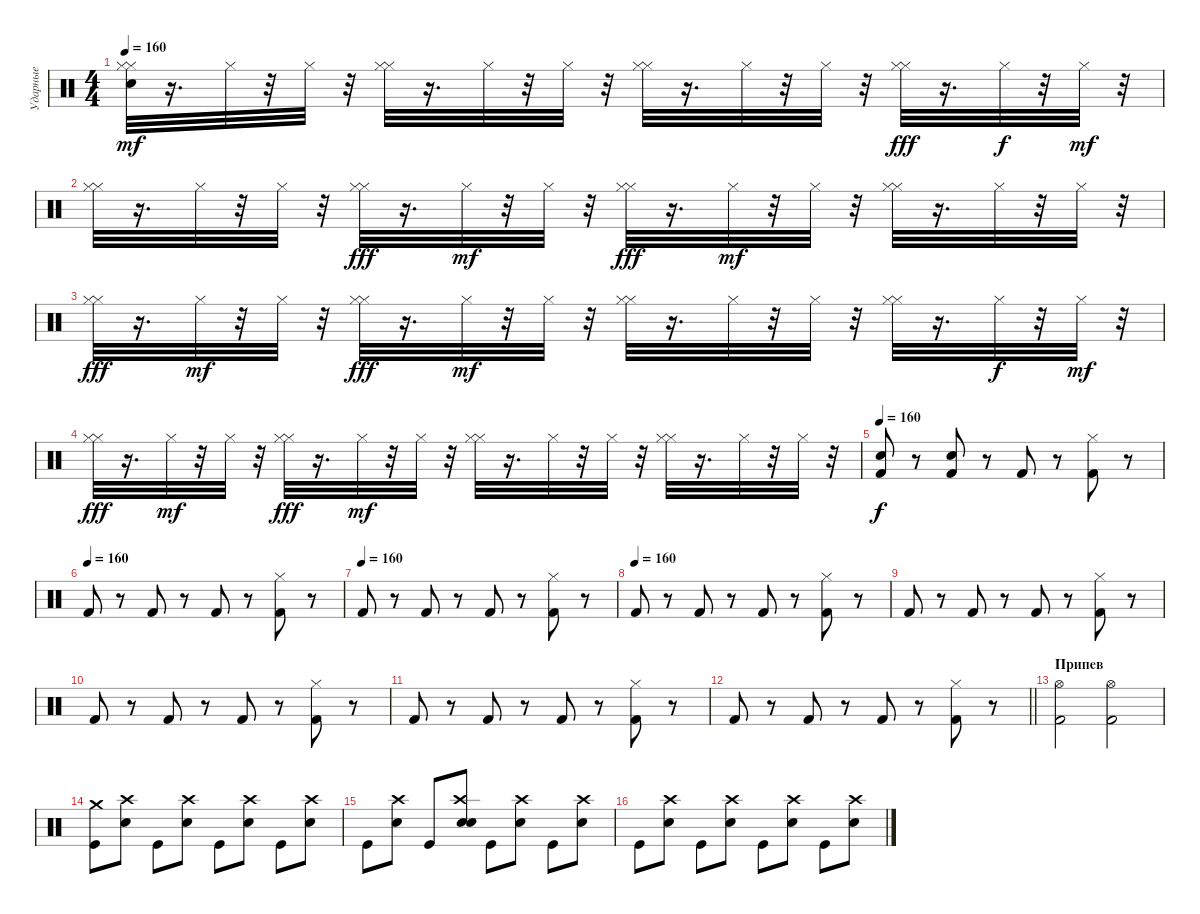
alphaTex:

\track ("Ударные" "Ударные") {instrument percussion}
\staff {score}
\articulation defaults
\ts (4 4)
\tempo 160
\clef neutral
\ks c
("Hi-Hat (closed)" "Hi-Hat (closed)" "Snare (hit)").32{dy mf} r.16{d} "Hi-Hat (closed)".32 r.32 "Hi-Hat (closed)".32 r.32 ("Hi-Hat (closed)" "Hi-Hat (closed)").32 r.16{d} "Hi-Hat (closed)".32 r.32 "Hi-Hat (closed)".32 r.32 ("Hi-Hat (closed)" "Hi-Hat (closed)").32 r.16{d} "Hi-Hat (closed)".32 r.32 "Hi-Hat (closed)".32 r.32 ("Hi-Hat (closed)" "Hi-Hat (closed)").32{dy fff} r.16{d} "Hi-Hat (closed)".32{dy f} r.32 "Hi-Hat (closed)".32{dy mf} r.32 |
("Hi-Hat (closed)" "Hi-Hat (closed)").32 r.16{d} "Hi-Hat (closed)".32 r.32 "Hi-Hat (closed)".32 r.32 ("Hi-Hat (closed)" "Hi-Hat (closed)").32{dy fff} r.16{d} "Hi-Hat (closed)".32{dy mf} r.32 "Hi-Hat (closed)".32 r.32 ("Hi-Hat (closed)" "Hi-Hat (closed)").32{dy fff} r.16{d} "Hi-Hat (closed)".32{dy mf} r.32 "Hi-Hat (closed)".32 r.32 ("Hi-Hat (closed)" "Hi-Hat (closed)").32 r.16{d} "Hi-Hat (closed)".32 r.32 "Hi-Hat (closed)".32 r.32 |
("Hi-Hat (closed)" "Hi-Hat (closed)").32{dy fff} r.16{d} "Hi-Hat (closed)".32{dy mf} r.32 "Hi-Hat (closed)".32 r.32 ("Hi-Hat (closed)" "Hi-Hat (closed)").32{dy fff} r.16{d} "Hi-Hat (closed)".32{dy mf} r.32 "Hi-Hat (closed)".32 r.32 ("Hi-Hat (closed)" "Hi-Hat (closed)").32 r.16{d} "Hi-Hat (closed)".32 r.32 "Hi-Hat (closed)".32 r.32 ("Hi-Hat (closed)" "Hi-Hat (closed)").32 r.16{d} "Hi-Hat (closed)".32{dy f} r.32 "Hi-Hat (closed)".32{dy mf} r.32 |
("Hi-Hat (closed)" "Hi-Hat (closed)").32{dy fff} r.16{d} "Hi-Hat (closed)".32{dy mf} r.32 "Hi-Hat (closed)".32 r.32 ("Hi-Hat (closed)" "Hi-Hat (closed)").32{dy fff} r.16{d} "Hi-Hat (closed)".32{dy mf} r.32 "Hi-Hat (closed)".32 r.32 ("Hi-Hat (closed)" "Hi-Hat (closed)").32 r.16{d} "Hi-Hat (closed)".32 r.32 "Hi-Hat (closed)".32 r.32 ("Hi-Hat (closed)" "Hi-Hat (closed)").32 r.16{d} "Hi-Hat (closed)".32 r.32 "Hi-Hat (closed)".32 r.32 |
\tempo 160
("Kick (hit) 2" "Snare (hit)").8{dy f} r.8 ("Kick (hit) 2" "Snare (hit)").8 r.8 "Kick (hit) 2".8 r.8 ("Kick (hit) 2" "Hi-Hat (closed)").8 r.8 |
\tempo (160)
"Kick (hit) 2".8 r.8 "Kick (hit) 2".8 r.8 "Kick (hit) 2".8 r.8 ("Kick (hit) 2" "Hi-Hat (closed)").8 r.8 |
\tempo (160)
"Kick (hit) 2".8 r.8 "Kick (hit) 2".8 r.8 "Kick (hit) 2".8 r.8 ("Kick (hit) 2" "Hi-Hat (closed)").8 r.8 |
\tempo (160)
"Kick (hit) 2".8 r.8 "Kick (hit) 2".8 r.8 "Kick (hit) 2".8 r.8 ("Kick (hit) 2" "Hi-Hat (closed)").8 r.8 |
"Kick (hit) 2".8 r.8 "Kick (hit) 2".8 r.8 "Kick (hit) 2".8 r.8 ("Kick (hit) 2" "Hi-Hat (closed)").8 r.8 |
"Kick (hit) 2".8 r.8 "Kick (hit) 2".8 r.8 "Kick (hit) 2".8 r.8 ("Kick (hit) 2" "Hi-Hat (closed)").8 r.8 |
"Kick (hit) 2".8 r.8 "Kick (hit) 2".8 r.8 "Kick (hit) 2".8 r.8 ("Kick (hit) 2" "Hi-Hat (closed)").8 r.8 |
\barLineRight lightlight "Kick (hit) 2".8
r.8 "Kick (hit) 2".8 r.8 "Kick (hit) 2".8 r.8 ("Kick (hit) 2" "Hi-Hat (closed)").8 r.8 |
\section ("" "Припев")
("Hi-Hat (open)" "Kick (hit) 2").2 ("Hi-Hat (open)" "Kick (hit) 2").2 |
("Crash medium (hit)" "Kick (hit)").8 ("Crash high (hit)" "Snare (hit) 2").8 "Kick (hit)".8 ("Crash high (hit)" "Snare (hit) 2").8 "Kick (hit)".8 ("Crash high (hit)" "Snare (hit) 2").8 "Kick (hit)".8 ("Crash high (hit)" "Snare (hit) 2").8 |
"Kick (hit)".8 ("Crash high (hit)" "Snare (hit) 2").8 "Kick (hit)".8 ("Crash high (hit)" "Electric Snare (hit)" "Snare (hit) 2").8 "Kick (hit)".8 ("Crash high (hit)" "Snare (hit) 2").8 "Kick (hit)".8 ("Crash high (hit)" "Snare (hit) 2").8 |
"Kick (hit)".8 ("Crash high (hit)" "Snare (hit) 2").8 "Kick (hit)".8 ("Crash high (hit)" "Snare (hit) 2").8 "Kick (hit)".8 ("Crash high (hit)" "Snare (hit) 2").8 "Kick (hit)".8 ("Crash high (hit)" "Snare (hit) 2").8
